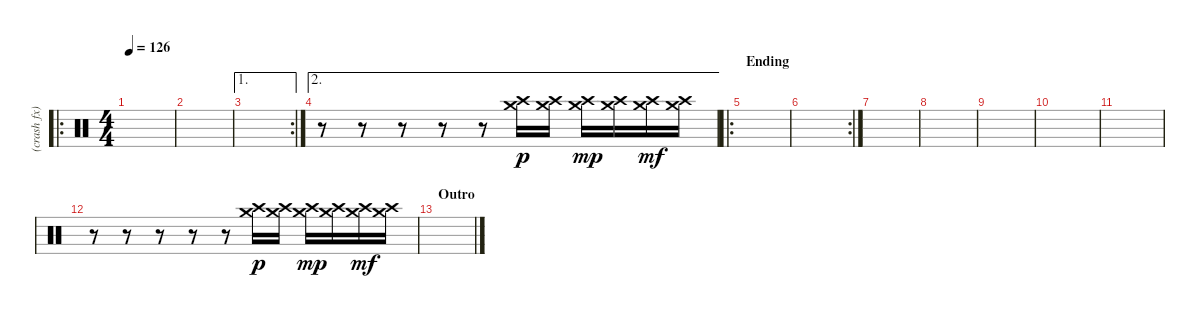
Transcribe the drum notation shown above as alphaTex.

\track ("(crash fx)" "(crash fx)") {instrument percussion}
\staff {score}
\articulation defaults
\ro
\ts (4 4)
\tempo 126
\clef neutral
\ks c
|
|
\ae 1
\rc 2
|
\ae 2
r.8 r.8 r.8 r.8 r.8 ("Crash medium (hit)" "Crash high (hit)").16{dy p} ("Crash medium (hit)" "Crash high (hit)").16 ("Crash medium (hit)" "Crash high (hit)").16{dy mp} ("Crash medium (hit)" "Crash high (hit)").16 ("Crash medium (hit)" "Crash high (hit)").16{dy mf} ("Crash medium (hit)" "Crash high (hit)").16 |
\ro
\section ("" "Ending")
|
\rc 2
|
|
|
|
|
|
r.8 r.8 r.8 r.8 r.8 ("Crash medium (hit)" "Crash high (hit)").16{dy p} ("Crash medium (hit)" "Crash high (hit)").16 ("Crash medium (hit)" "Crash high (hit)").16{dy mp} ("Crash medium (hit)" "Crash high (hit)").16 ("Crash medium (hit)" "Crash high (hit)").16{dy mf} ("Crash medium (hit)" "Crash high (hit)").16 |
\section ("" "Outro")
